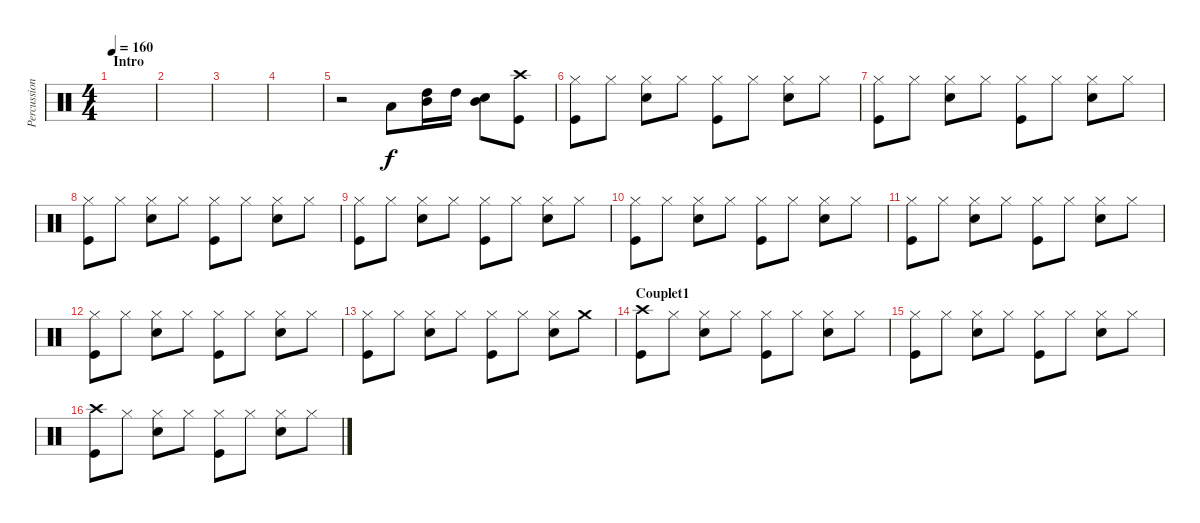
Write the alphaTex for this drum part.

\track ("Percussions" "Percussion") {instrument percussion}
\staff {score}
\articulation defaults
\ts (4 4)
\section ("" "Intro")
\tempo 160
\clef neutral
\ks c
|
|
|
|
r.2 "Low Tom (hit)".8 ("High Tom (hit)" "Mid Tom (hit)").16 "High Tom (hit)".16 ("Snare (hit) 2" "Mid Tom (hit)").8 ("Crash high (hit)" "Kick (hit)").8 |
("Hi-Hat (closed)" "Kick (hit)").8 "Hi-Hat (closed)".8 ("Hi-Hat (closed)" "Snare (hit) 2").8 "Hi-Hat (closed)".8 ("Hi-Hat (closed)" "Kick (hit)").8 "Hi-Hat (closed)".8 ("Hi-Hat (closed)" "Snare (hit) 2").8 "Hi-Hat (closed)".8 |
("Hi-Hat (closed)" "Kick (hit)").8 "Hi-Hat (closed)".8 ("Hi-Hat (closed)" "Snare (hit) 2").8 "Hi-Hat (closed)".8 ("Hi-Hat (closed)" "Kick (hit)").8 "Hi-Hat (closed)".8 ("Hi-Hat (closed)" "Snare (hit) 2").8 "Hi-Hat (closed)".8 |
("Hi-Hat (closed)" "Kick (hit)").8 "Hi-Hat (closed)".8 ("Hi-Hat (closed)" "Snare (hit) 2").8 "Hi-Hat (closed)".8 ("Hi-Hat (closed)" "Kick (hit)").8 "Hi-Hat (closed)".8 ("Hi-Hat (closed)" "Snare (hit) 2").8 "Hi-Hat (closed)".8 |
("Hi-Hat (closed)" "Kick (hit)").8 "Hi-Hat (closed)".8 ("Hi-Hat (closed)" "Snare (hit) 2").8 "Hi-Hat (closed)".8 ("Hi-Hat (closed)" "Kick (hit)").8 "Hi-Hat (closed)".8 ("Hi-Hat (closed)" "Snare (hit) 2").8 "Hi-Hat (closed)".8 |
("Hi-Hat (closed)" "Kick (hit)").8 "Hi-Hat (closed)".8 ("Hi-Hat (closed)" "Snare (hit) 2").8 "Hi-Hat (closed)".8 ("Hi-Hat (closed)" "Kick (hit)").8 "Hi-Hat (closed)".8 ("Hi-Hat (closed)" "Snare (hit) 2").8 "Hi-Hat (closed)".8 |
("Hi-Hat (closed)" "Kick (hit)").8 "Hi-Hat (closed)".8 ("Hi-Hat (closed)" "Snare (hit) 2").8 "Hi-Hat (closed)".8 ("Hi-Hat (closed)" "Kick (hit)").8 "Hi-Hat (closed)".8 ("Hi-Hat (closed)" "Snare (hit) 2").8 "Hi-Hat (closed)".8 |
("Hi-Hat (closed)" "Kick (hit)").8 "Hi-Hat (closed)".8 ("Hi-Hat (closed)" "Snare (hit) 2").8 "Hi-Hat (closed)".8 ("Hi-Hat (closed)" "Kick (hit)").8 "Hi-Hat (closed)".8 ("Hi-Hat (closed)" "Snare (hit) 2").8 "Hi-Hat (closed)".8 |
("Hi-Hat (closed)" "Kick (hit)").8 "Hi-Hat (closed)".8 ("Hi-Hat (closed)" "Snare (hit) 2").8 "Hi-Hat (closed)".8 ("Hi-Hat (closed)" "Kick (hit)").8 "Hi-Hat (closed)".8 ("Hi-Hat (closed)" "Snare (hit) 2").8 "Crash medium (hit)".8 |
\section ("" "Couplet1")
("Crash high (hit)" "Kick (hit)").8 "Hi-Hat (closed)".8 ("Hi-Hat (closed)" "Snare (hit) 2").8 "Hi-Hat (closed)".8 ("Hi-Hat (closed)" "Kick (hit)").8 "Hi-Hat (closed)".8 ("Hi-Hat (closed)" "Snare (hit) 2").8 "Hi-Hat (closed)".8 |
("Hi-Hat (closed)" "Kick (hit)").8 "Hi-Hat (closed)".8 ("Hi-Hat (closed)" "Snare (hit) 2").8 "Hi-Hat (closed)".8 ("Hi-Hat (closed)" "Kick (hit)").8 "Hi-Hat (closed)".8 ("Hi-Hat (closed)" "Snare (hit) 2").8 "Hi-Hat (closed)".8 |
("Crash high (hit)" "Kick (hit)").8 "Hi-Hat (closed)".8 ("Hi-Hat (closed)" "Snare (hit) 2").8 "Hi-Hat (closed)".8 ("Hi-Hat (closed)" "Kick (hit)").8 "Hi-Hat (closed)".8 ("Hi-Hat (closed)" "Snare (hit) 2").8 "Hi-Hat (closed)".8
